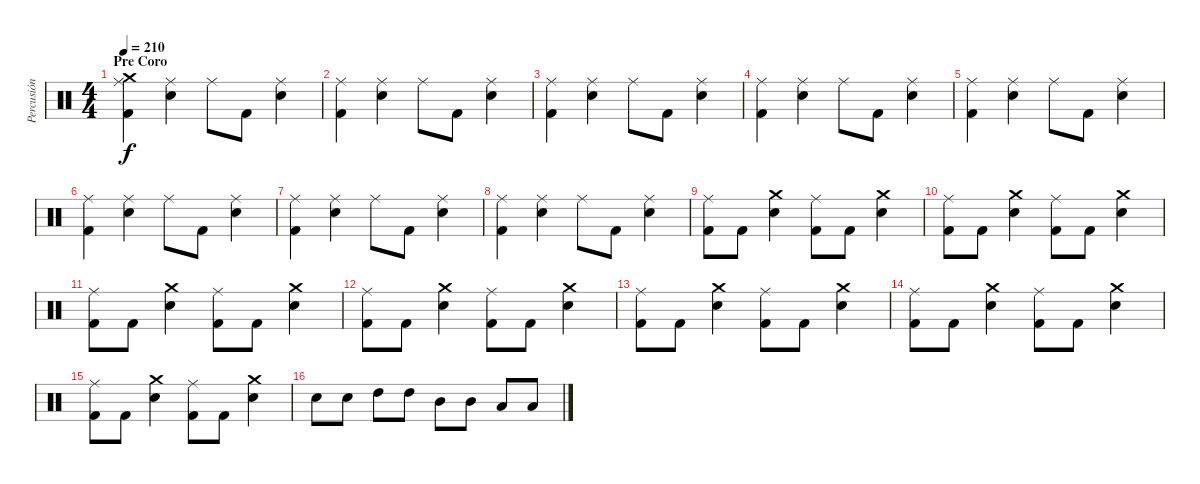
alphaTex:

\track ("Percusión" "Percusión") {instrument percussion}
\staff {score}
\articulation defaults
\ts (4 4)
\section ("" "Pre Coro")
\tempo 210
\clef neutral
\ks c
("Crash medium (hit)" "Kick (hit) 2" "Ride (middle)").4{dy f} ("Ride (middle)" "Snare (hit) 2").4 "Ride (middle)".8 "Kick (hit) 2".8 ("Ride (middle)" "Snare (hit) 2").4 |
("Kick (hit) 2" "Ride (middle)").4 ("Ride (middle)" "Snare (hit) 2").4 "Ride (middle)".8 "Kick (hit) 2".8 ("Ride (middle)" "Snare (hit) 2").4 |
("Kick (hit) 2" "Ride (middle)").4 ("Ride (middle)" "Snare (hit) 2").4 "Ride (middle)".8 "Kick (hit) 2".8 ("Ride (middle)" "Snare (hit) 2").4 |
("Kick (hit) 2" "Ride (middle)").4 ("Ride (middle)" "Snare (hit) 2").4 "Ride (middle)".8 "Kick (hit) 2".8 ("Ride (middle)" "Snare (hit) 2").4 |
("Kick (hit) 2" "Ride (middle)").4 ("Ride (middle)" "Snare (hit) 2").4 "Ride (middle)".8 "Kick (hit) 2".8 ("Ride (middle)" "Snare (hit) 2").4 |
("Kick (hit) 2" "Ride (middle)").4 ("Ride (middle)" "Snare (hit) 2").4 "Ride (middle)".8 "Kick (hit) 2".8 ("Ride (middle)" "Snare (hit) 2").4 |
("Kick (hit) 2" "Ride (middle)").4 ("Ride (middle)" "Snare (hit) 2").4 "Ride (middle)".8 "Kick (hit) 2".8 ("Ride (middle)" "Snare (hit) 2").4 |
("Kick (hit) 2" "Ride (middle)").4 ("Ride (middle)" "Snare (hit) 2").4 "Ride (middle)".8 "Kick (hit) 2".8 ("Ride (middle)" "Snare (hit) 2").4 |
("Kick (hit) 2" "Ride (middle)").8 "Kick (hit) 2".8 ("Snare (hit) 2" "Crash medium (hit)").4 ("Kick (hit) 2" "Ride (middle)").8 "Kick (hit) 2".8 ("Snare (hit) 2" "Crash medium (hit)").4 |
("Kick (hit) 2" "Ride (middle)").8 "Kick (hit) 2".8 ("Snare (hit) 2" "Crash medium (hit)").4 ("Kick (hit) 2" "Ride (middle)").8 "Kick (hit) 2".8 ("Snare (hit) 2" "Crash medium (hit)").4 |
("Kick (hit) 2" "Ride (middle)").8 "Kick (hit) 2".8 ("Snare (hit) 2" "Crash medium (hit)").4 ("Kick (hit) 2" "Ride (middle)").8 "Kick (hit) 2".8 ("Snare (hit) 2" "Crash medium (hit)").4 |
("Kick (hit) 2" "Ride (middle)").8 "Kick (hit) 2".8 ("Snare (hit) 2" "Crash medium (hit)").4 ("Kick (hit) 2" "Ride (middle)").8 "Kick (hit) 2".8 ("Snare (hit) 2" "Crash medium (hit)").4 |
("Kick (hit) 2" "Ride (middle)").8 "Kick (hit) 2".8 ("Snare (hit) 2" "Crash medium (hit)").4 ("Kick (hit) 2" "Ride (middle)").8 "Kick (hit) 2".8 ("Snare (hit) 2" "Crash medium (hit)").4 |
("Kick (hit) 2" "Ride (middle)").8 "Kick (hit) 2".8 ("Snare (hit) 2" "Crash medium (hit)").4 ("Kick (hit) 2" "Ride (middle)").8 "Kick (hit) 2".8 ("Snare (hit) 2" "Crash medium (hit)").4 |
("Kick (hit) 2" "Ride (middle)").8 "Kick (hit) 2".8 ("Snare (hit) 2" "Crash medium (hit)").4 ("Kick (hit) 2" "Ride (middle)").8 "Kick (hit) 2".8 ("Snare (hit) 2" "Crash medium (hit)").4 |
"Snare (hit) 2".8 "Snare (hit) 2".8 "High Tom (hit)".8 "High Tom (hit)".8 "Mid Tom (hit)".8 "Mid Tom (hit)".8 "Low Tom (hit)".8 "Low Tom (hit)".8
